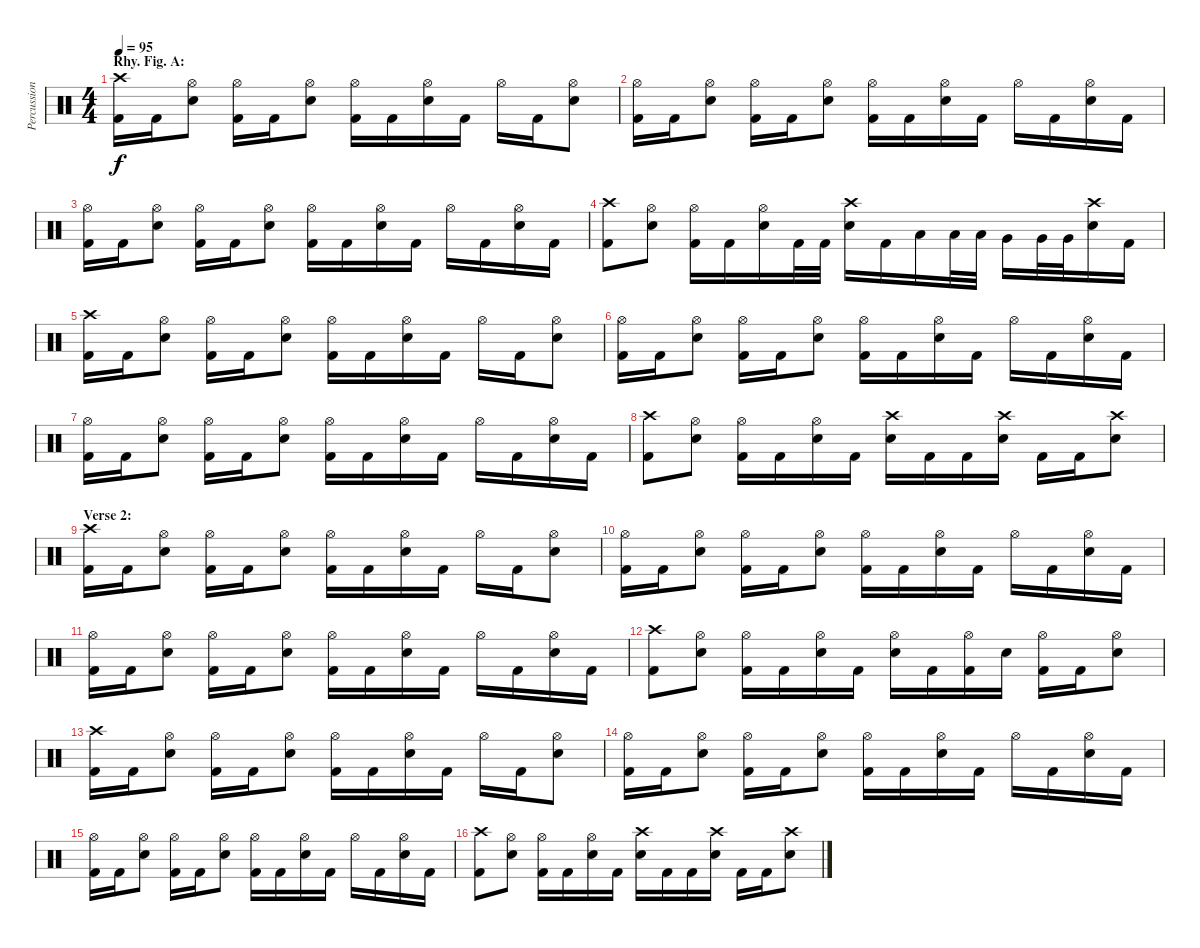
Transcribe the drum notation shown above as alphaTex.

\track ("Percussion" "Percussion") {instrument percussion}
\staff {score}
\articulation defaults
\ts (4 4)
\section ("" "Rhy. Fig. A:")
\tempo 95
\clef neutral
\ks c
("Crash high (hit)" "Kick (hit) 2").16{dy f} "Kick (hit) 2".16 ("Hi-Hat (open)" "Electric Snare (hit)").8 ("Hi-Hat (open)" "Kick (hit) 2").16 "Kick (hit) 2".16 ("Hi-Hat (open)" "Electric Snare (hit)").8 ("Hi-Hat (open)" "Kick (hit) 2").16 "Kick (hit) 2".16 ("Hi-Hat (open)" "Electric Snare (hit)").16 "Kick (hit) 2".16 "Hi-Hat (open)".16 "Kick (hit) 2".16 ("Hi-Hat (open)" "Electric Snare (hit)").8 |
("Hi-Hat (open)" "Kick (hit) 2").16 "Kick (hit) 2".16 ("Hi-Hat (open)" "Electric Snare (hit)").8 ("Hi-Hat (open)" "Kick (hit) 2").16 "Kick (hit) 2".16 ("Hi-Hat (open)" "Electric Snare (hit)").8 ("Hi-Hat (open)" "Kick (hit) 2").16 "Kick (hit) 2".16 ("Hi-Hat (open)" "Electric Snare (hit)").16 "Kick (hit) 2".16 "Hi-Hat (open)".16 "Kick (hit) 2".16 ("Hi-Hat (open)" "Electric Snare (hit)").16 "Kick (hit) 2".16 |
("Hi-Hat (open)" "Kick (hit) 2").16 "Kick (hit) 2".16 ("Hi-Hat (open)" "Electric Snare (hit)").8 ("Hi-Hat (open)" "Kick (hit) 2").16 "Kick (hit) 2".16 ("Hi-Hat (open)" "Electric Snare (hit)").8 ("Hi-Hat (open)" "Kick (hit) 2").16 "Kick (hit) 2".16 ("Hi-Hat (open)" "Electric Snare (hit)").16 "Kick (hit) 2".16 "Hi-Hat (open)".16 "Kick (hit) 2".16 ("Hi-Hat (open)" "Electric Snare (hit)").16 "Kick (hit) 2".16 |
("Crash high (hit)" "Kick (hit) 2").8 ("Hi-Hat (open)" "Electric Snare (hit)").8 ("Hi-Hat (open)" "Kick (hit) 2").16 "Kick (hit) 2".16 ("Hi-Hat (open)" "Electric Snare (hit)").16 "Kick (hit) 2".32 "Kick (hit) 2".32 ("Crash high (hit)" "Electric Snare (hit)").16 "Kick (hit) 2".16 "Low Tom (hit)".16 "Low Tom (hit)".32 "Low Tom (hit)".32 "Very Low Tom (hit)".16 "Very Low Tom (hit)".32 "Very Low Tom (hit)".32 ("Crash high (hit)" "Electric Snare (hit)").16 "Kick (hit) 2".16 |
("Crash high (hit)" "Kick (hit) 2").16 "Kick (hit) 2".16 ("Hi-Hat (open)" "Electric Snare (hit)").8 ("Hi-Hat (open)" "Kick (hit) 2").16 "Kick (hit) 2".16 ("Hi-Hat (open)" "Electric Snare (hit)").8 ("Hi-Hat (open)" "Kick (hit) 2").16 "Kick (hit) 2".16 ("Hi-Hat (open)" "Electric Snare (hit)").16 "Kick (hit) 2".16 "Hi-Hat (open)".16 "Kick (hit) 2".16 ("Hi-Hat (open)" "Electric Snare (hit)").8 |
("Hi-Hat (open)" "Kick (hit) 2").16 "Kick (hit) 2".16 ("Hi-Hat (open)" "Electric Snare (hit)").8 ("Hi-Hat (open)" "Kick (hit) 2").16 "Kick (hit) 2".16 ("Hi-Hat (open)" "Electric Snare (hit)").8 ("Hi-Hat (open)" "Kick (hit) 2").16 "Kick (hit) 2".16 ("Hi-Hat (open)" "Electric Snare (hit)").16 "Kick (hit) 2".16 "Hi-Hat (open)".16 "Kick (hit) 2".16 ("Hi-Hat (open)" "Electric Snare (hit)").16 "Kick (hit) 2".16 |
("Hi-Hat (open)" "Kick (hit) 2").16 "Kick (hit) 2".16 ("Hi-Hat (open)" "Electric Snare (hit)").8 ("Hi-Hat (open)" "Kick (hit) 2").16 "Kick (hit) 2".16 ("Hi-Hat (open)" "Electric Snare (hit)").8 ("Hi-Hat (open)" "Kick (hit) 2").16 "Kick (hit) 2".16 ("Hi-Hat (open)" "Electric Snare (hit)").16 "Kick (hit) 2".16 "Hi-Hat (open)".16 "Kick (hit) 2".16 ("Hi-Hat (open)" "Electric Snare (hit)").16 "Kick (hit) 2".16 |
("Crash high (hit)" "Kick (hit) 2").8 ("Hi-Hat (open)" "Electric Snare (hit)").8 ("Hi-Hat (open)" "Kick (hit) 2").16 "Kick (hit) 2".16 ("Hi-Hat (open)" "Electric Snare (hit)").16 "Kick (hit) 2".16 ("Crash high (hit)" "Electric Snare (hit)").16 "Kick (hit) 2".16 "Kick (hit) 2".16 ("Crash high (hit)" "Electric Snare (hit)").16 "Kick (hit) 2".16 "Kick (hit) 2".16 ("Crash high (hit)" "Electric Snare (hit)").8 |
\section ("" "Verse 2:")
("Crash high (hit)" "Kick (hit) 2").16 "Kick (hit) 2".16 ("Hi-Hat (open)" "Electric Snare (hit)").8 ("Hi-Hat (open)" "Kick (hit) 2").16 "Kick (hit) 2".16 ("Hi-Hat (open)" "Electric Snare (hit)").8 ("Hi-Hat (open)" "Kick (hit) 2").16 "Kick (hit) 2".16 ("Hi-Hat (open)" "Electric Snare (hit)").16 "Kick (hit) 2".16 "Hi-Hat (open)".16 "Kick (hit) 2".16 ("Hi-Hat (open)" "Electric Snare (hit)").8 |
("Hi-Hat (open)" "Kick (hit) 2").16 "Kick (hit) 2".16 ("Hi-Hat (open)" "Electric Snare (hit)").8 ("Hi-Hat (open)" "Kick (hit) 2").16 "Kick (hit) 2".16 ("Hi-Hat (open)" "Electric Snare (hit)").8 ("Hi-Hat (open)" "Kick (hit) 2").16 "Kick (hit) 2".16 ("Hi-Hat (open)" "Electric Snare (hit)").16 "Kick (hit) 2".16 "Hi-Hat (open)".16 "Kick (hit) 2".16 ("Hi-Hat (open)" "Electric Snare (hit)").16 "Kick (hit) 2".16 |
("Hi-Hat (open)" "Kick (hit) 2").16 "Kick (hit) 2".16 ("Hi-Hat (open)" "Electric Snare (hit)").8 ("Hi-Hat (open)" "Kick (hit) 2").16 "Kick (hit) 2".16 ("Hi-Hat (open)" "Electric Snare (hit)").8 ("Hi-Hat (open)" "Kick (hit) 2").16 "Kick (hit) 2".16 ("Hi-Hat (open)" "Electric Snare (hit)").16 "Kick (hit) 2".16 "Hi-Hat (open)".16 "Kick (hit) 2".16 ("Hi-Hat (open)" "Electric Snare (hit)").16 "Kick (hit) 2".16 |
("Crash high (hit)" "Kick (hit) 2").8 ("Hi-Hat (open)" "Electric Snare (hit)").8 ("Hi-Hat (open)" "Kick (hit) 2").16 "Kick (hit) 2".16 ("Hi-Hat (open)" "Electric Snare (hit)").16 "Kick (hit) 2".16 ("Hi-Hat (open)" "Electric Snare (hit)").16 "Kick (hit) 2".16 ("Hi-Hat (open)" "Kick (hit) 2").16 "Electric Snare (hit)".16 ("Hi-Hat (open)" "Kick (hit) 2").16 "Kick (hit) 2".16 ("Hi-Hat (open)" "Electric Snare (hit)").8 |
("Crash high (hit)" "Kick (hit) 2").16 "Kick (hit) 2".16 ("Hi-Hat (open)" "Electric Snare (hit)").8 ("Hi-Hat (open)" "Kick (hit) 2").16 "Kick (hit) 2".16 ("Hi-Hat (open)" "Electric Snare (hit)").8 ("Hi-Hat (open)" "Kick (hit) 2").16 "Kick (hit) 2".16 ("Hi-Hat (open)" "Electric Snare (hit)").16 "Kick (hit) 2".16 "Hi-Hat (open)".16 "Kick (hit) 2".16 ("Hi-Hat (open)" "Electric Snare (hit)").8 |
("Hi-Hat (open)" "Kick (hit) 2").16 "Kick (hit) 2".16 ("Hi-Hat (open)" "Electric Snare (hit)").8 ("Hi-Hat (open)" "Kick (hit) 2").16 "Kick (hit) 2".16 ("Hi-Hat (open)" "Electric Snare (hit)").8 ("Hi-Hat (open)" "Kick (hit) 2").16 "Kick (hit) 2".16 ("Hi-Hat (open)" "Electric Snare (hit)").16 "Kick (hit) 2".16 "Hi-Hat (open)".16 "Kick (hit) 2".16 ("Hi-Hat (open)" "Electric Snare (hit)").16 "Kick (hit) 2".16 |
("Hi-Hat (open)" "Kick (hit) 2").16 "Kick (hit) 2".16 ("Hi-Hat (open)" "Electric Snare (hit)").8 ("Hi-Hat (open)" "Kick (hit) 2").16 "Kick (hit) 2".16 ("Hi-Hat (open)" "Electric Snare (hit)").8 ("Hi-Hat (open)" "Kick (hit) 2").16 "Kick (hit) 2".16 ("Hi-Hat (open)" "Electric Snare (hit)").16 "Kick (hit) 2".16 "Hi-Hat (open)".16 "Kick (hit) 2".16 ("Hi-Hat (open)" "Electric Snare (hit)").16 "Kick (hit) 2".16 |
("Crash high (hit)" "Kick (hit) 2").8 ("Hi-Hat (open)" "Electric Snare (hit)").8 ("Hi-Hat (open)" "Kick (hit) 2").16 "Kick (hit) 2".16 ("Hi-Hat (open)" "Electric Snare (hit)").16 "Kick (hit) 2".16 ("Crash high (hit)" "Electric Snare (hit)").16 "Kick (hit) 2".16 "Kick (hit) 2".16 ("Crash high (hit)" "Electric Snare (hit)").16 "Kick (hit) 2".16 "Kick (hit) 2".16 ("Crash high (hit)" "Electric Snare (hit)").8
